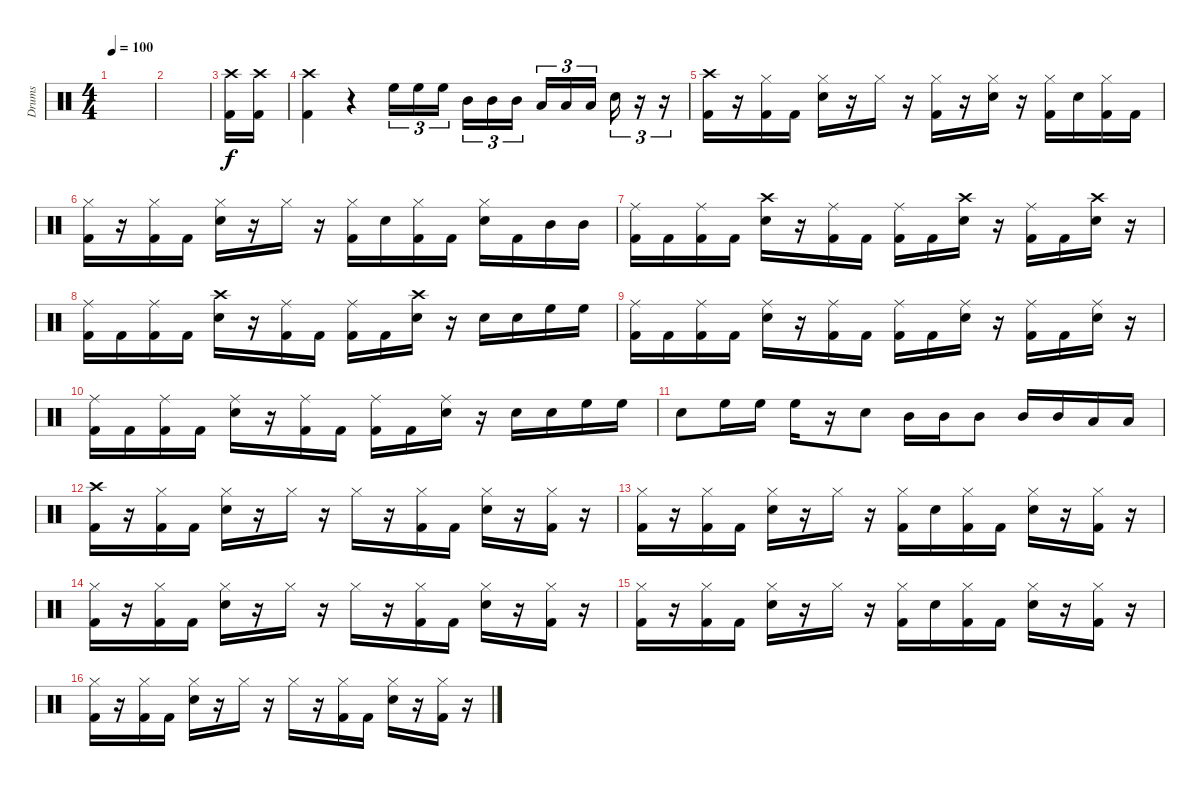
\track ("Drums" "Drums") {instrument percussion}
\staff {score}
\articulation defaults
\ts (4 4)
\tempo 100
\clef neutral
\ks c
|
|
("Crash high (hit)" "Kick (hit) 2").16 ("Kick (hit) 2" "Crash high (hit)").16 |
("Crash high (hit)" "Kick (hit) 2").4 r.4 "High Floor Tom (hit)".16{tu (3 2)} "High Floor Tom (hit)".16{tu (3 2)} "High Floor Tom (hit)".16{tu (3 2)} "Mid Tom (hit)".16{tu (3 2)} "Mid Tom (hit)".16{tu (3 2)} "Mid Tom (hit)".16{tu (3 2)} "Low Tom (hit)".16{tu (3 2)} "Low Tom (hit)".16{tu (3 2)} "Low Tom (hit)".16{tu (3 2)} "Snare (hit) 2".16{tu (3 2)} r.16{tu (3 2)} r.16{tu (3 2)} |
("Crash high (hit)" "Kick (hit) 2").16 r.16 ("Hi-Hat (closed)" "Kick (hit) 2").16 "Kick (hit) 2".16 ("Hi-Hat (closed)" "Snare (hit) 2").16 r.16 "Hi-Hat (closed)".16 r.16 ("Hi-Hat (closed)" "Kick (hit) 2").16 r.16 ("Hi-Hat (closed)" "Snare (hit) 2").16 r.16 ("Hi-Hat (closed)" "Kick (hit) 2").16 "Snare (hit) 2".16 ("Hi-Hat (closed)" "Kick (hit) 2").16 "Kick (hit) 2".16 |
("Hi-Hat (closed)" "Kick (hit) 2").16 r.16 ("Hi-Hat (closed)" "Kick (hit) 2").16 "Kick (hit) 2".16 ("Hi-Hat (closed)" "Snare (hit) 2").16 r.16 "Hi-Hat (closed)".16 r.16 ("Hi-Hat (closed)" "Kick (hit) 2").16 "Snare (hit) 2".16 ("Hi-Hat (closed)" "Kick (hit) 2").16 "Kick (hit) 2".16 ("Hi-Hat (closed)" "Snare (hit) 2").16 "Kick (hit) 2".16 "Mid Tom (hit)".16 "Mid Tom (hit)".16 |
("Ride (middle)" "Kick (hit) 2").16 "Kick (hit) 2".16 ("Ride (middle)" "Kick (hit) 2").16 "Kick (hit) 2".16 ("Crash high (hit)" "Snare (hit) 2").16 r.16 ("Ride (middle)" "Kick (hit) 2").16 "Kick (hit) 2".16 ("Ride (middle)" "Kick (hit) 2").16 "Kick (hit) 2".16 ("Crash high (hit)" "Snare (hit) 2").16 r.16 ("Ride (middle)" "Kick (hit) 2").16 "Kick (hit) 2".16 ("Crash high (hit)" "Snare (hit) 2").16 r.16 |
("Ride (middle)" "Kick (hit) 2").16 "Kick (hit) 2".16 ("Ride (middle)" "Kick (hit) 2").16 "Kick (hit) 2".16 ("Crash high (hit)" "Snare (hit) 2").16 r.16 ("Ride (middle)" "Kick (hit) 2").16 "Kick (hit) 2".16 ("Ride (middle)" "Kick (hit) 2").16 "Kick (hit) 2".16 ("Crash high (hit)" "Snare (hit) 2").16 r.16 "Snare (hit) 2".16 "Snare (hit) 2".16 "High Floor Tom (hit)".16 "High Floor Tom (hit)".16 |
("Ride (middle)" "Kick (hit) 2").16 "Kick (hit) 2".16 ("Ride (middle)" "Kick (hit) 2").16 "Kick (hit) 2".16 ("Ride (middle)" "Snare (hit) 2").16 r.16 ("Ride (middle)" "Kick (hit) 2").16 "Kick (hit) 2".16 ("Ride (middle)" "Kick (hit) 2").16 "Kick (hit) 2".16 ("Ride (middle)" "Snare (hit) 2").16 r.16 ("Ride (middle)" "Kick (hit) 2").16 "Kick (hit) 2".16 ("Ride (middle)" "Snare (hit) 2").16 r.16 |
("Ride (middle)" "Kick (hit) 2").16 "Kick (hit) 2".16 ("Ride (middle)" "Kick (hit) 2").16 "Kick (hit) 2".16 ("Ride (middle)" "Snare (hit) 2").16 r.16 ("Ride (middle)" "Kick (hit) 2").16 "Kick (hit) 2".16 ("Ride (middle)" "Kick (hit) 2").16 "Kick (hit) 2".16 ("Ride (middle)" "Snare (hit) 2").16 r.16 "Snare (hit) 2".16 "Snare (hit) 2".16 "High Floor Tom (hit)".16 "High Floor Tom (hit)".16 |
"Snare (hit) 2".8 "High Floor Tom (hit)".16 "High Floor Tom (hit)".16 "High Floor Tom (hit)".16 r.16 "Snare (hit) 2".8 "Mid Tom (hit)".16 "Mid Tom (hit)".16 "Mid Tom (hit)".8 "Mid Tom (hit)".16 "Mid Tom (hit)".16 "Low Tom (hit)".16 "Low Tom (hit)".16 |
("Crash high (hit)" "Kick (hit) 2").16 r.16 ("Hi-Hat (closed)" "Kick (hit) 2").16 "Kick (hit) 2".16 ("Hi-Hat (closed)" "Snare (hit) 2").16 r.16 "Hi-Hat (closed)".16 r.16 "Hi-Hat (closed)".16 r.16 ("Hi-Hat (closed)" "Kick (hit) 2").16 "Kick (hit) 2".16 ("Hi-Hat (closed)" "Snare (hit) 2").16 r.16 ("Hi-Hat (closed)" "Kick (hit) 2").16 r.16 |
("Hi-Hat (closed)" "Kick (hit) 2").16 r.16 ("Hi-Hat (closed)" "Kick (hit) 2").16 "Kick (hit) 2".16 ("Hi-Hat (closed)" "Snare (hit) 2").16 r.16 "Hi-Hat (closed)".16 r.16 ("Hi-Hat (closed)" "Kick (hit) 2").16 "Snare (hit) 2".16 ("Hi-Hat (closed)" "Kick (hit) 2").16 "Kick (hit) 2".16 ("Hi-Hat (closed)" "Snare (hit) 2").16 r.16 ("Hi-Hat (closed)" "Kick (hit) 2").16 r.16 |
("Hi-Hat (closed)" "Kick (hit) 2").16 r.16 ("Hi-Hat (closed)" "Kick (hit) 2").16 "Kick (hit) 2".16 ("Hi-Hat (closed)" "Snare (hit) 2").16 r.16 "Hi-Hat (closed)".16 r.16 "Hi-Hat (closed)".16 r.16 ("Hi-Hat (closed)" "Kick (hit) 2").16 "Kick (hit) 2".16 ("Hi-Hat (closed)" "Snare (hit) 2").16 r.16 ("Hi-Hat (closed)" "Kick (hit) 2").16 r.16 |
("Hi-Hat (closed)" "Kick (hit) 2").16 r.16 ("Hi-Hat (closed)" "Kick (hit) 2").16 "Kick (hit) 2".16 ("Hi-Hat (closed)" "Snare (hit) 2").16 r.16 "Hi-Hat (closed)".16 r.16 ("Hi-Hat (closed)" "Kick (hit) 2").16 "Snare (hit) 2".16 ("Hi-Hat (closed)" "Kick (hit) 2").16 "Kick (hit) 2".16 ("Hi-Hat (closed)" "Snare (hit) 2").16 r.16 ("Hi-Hat (closed)" "Kick (hit) 2").16 r.16 |
("Hi-Hat (closed)" "Kick (hit) 2").16 r.16 ("Hi-Hat (closed)" "Kick (hit) 2").16 "Kick (hit) 2".16 ("Hi-Hat (closed)" "Snare (hit) 2").16 r.16 "Hi-Hat (closed)".16 r.16 "Hi-Hat (closed)".16 r.16 ("Hi-Hat (closed)" "Kick (hit) 2").16 "Kick (hit) 2".16 ("Hi-Hat (closed)" "Snare (hit) 2").16 r.16 ("Hi-Hat (closed)" "Kick (hit) 2").16 r.16
